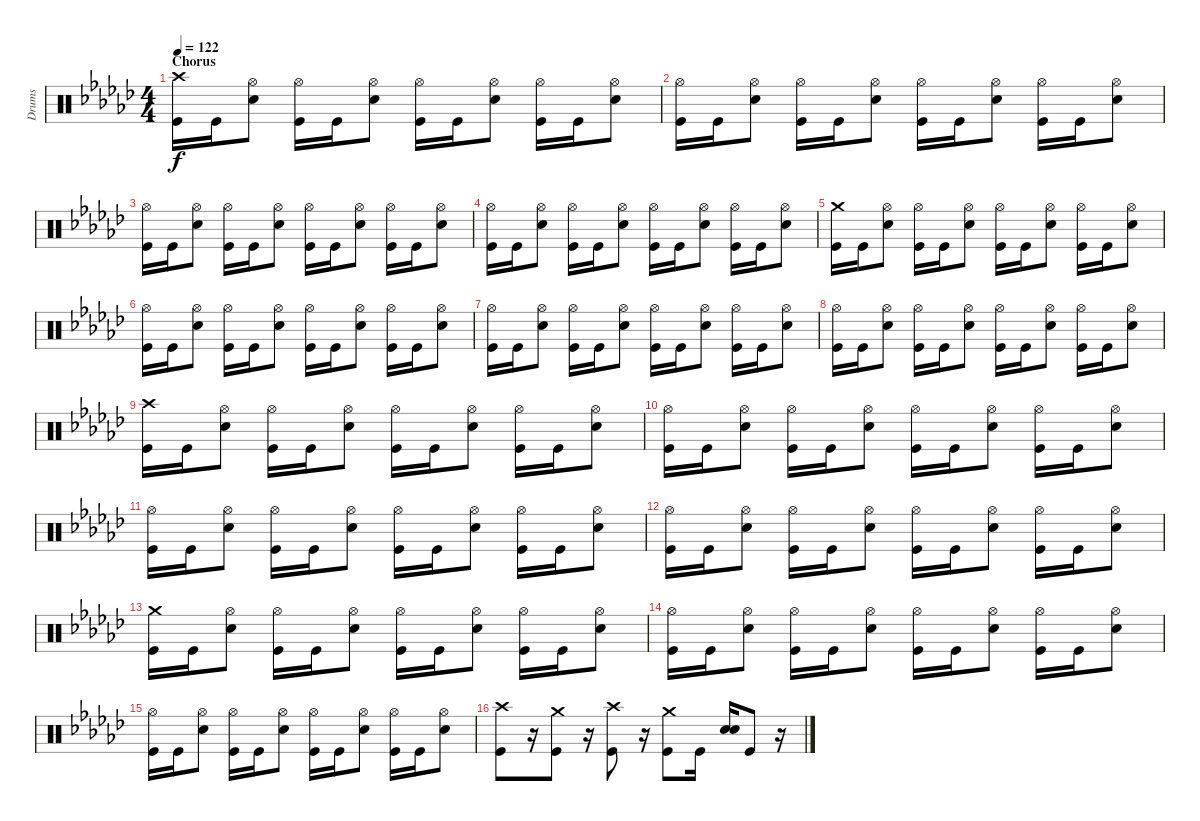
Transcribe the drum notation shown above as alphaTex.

\track ("Drums" "Drums") {instrument percussion}
\staff {score}
\articulation defaults
\ts (4 4)
\section ("" "Chorus")
\tempo 122
\clef neutral
\ks ebminor
("Crash high (hit)" "Kick (hit)").16{dy f} "Kick (hit)".16 ("Hi-Hat (open)" "Snare (hit) 2").8 ("Hi-Hat (open)" "Kick (hit)").16 "Kick (hit)".16 ("Hi-Hat (open)" "Snare (hit) 2").8 ("Hi-Hat (open)" "Kick (hit)").16 "Kick (hit)".16 ("Hi-Hat (open)" "Snare (hit) 2").8 ("Hi-Hat (open)" "Kick (hit)").16 "Kick (hit)".16 ("Hi-Hat (open)" "Snare (hit) 2").8 |
("Hi-Hat (open)" "Kick (hit)").16 "Kick (hit)".16 ("Hi-Hat (open)" "Snare (hit) 2").8 ("Hi-Hat (open)" "Kick (hit)").16 "Kick (hit)".16 ("Hi-Hat (open)" "Snare (hit) 2").8 ("Hi-Hat (open)" "Kick (hit)").16 "Kick (hit)".16 ("Hi-Hat (open)" "Snare (hit) 2").8 ("Hi-Hat (open)" "Kick (hit)").16 "Kick (hit)".16 ("Hi-Hat (open)" "Snare (hit) 2").8 |
("Hi-Hat (open)" "Kick (hit)").16 "Kick (hit)".16 ("Hi-Hat (open)" "Snare (hit) 2").8 ("Hi-Hat (open)" "Kick (hit)").16 "Kick (hit)".16 ("Hi-Hat (open)" "Snare (hit) 2").8 ("Hi-Hat (open)" "Kick (hit)").16 "Kick (hit)".16 ("Hi-Hat (open)" "Snare (hit) 2").8 ("Hi-Hat (open)" "Kick (hit)").16 "Kick (hit)".16 ("Hi-Hat (open)" "Snare (hit) 2").8 |
("Hi-Hat (open)" "Kick (hit)").16 "Kick (hit)".16 ("Hi-Hat (open)" "Snare (hit) 2").8 ("Hi-Hat (open)" "Kick (hit)").16 "Kick (hit)".16 ("Hi-Hat (open)" "Snare (hit) 2").8 ("Hi-Hat (open)" "Kick (hit)").16 "Kick (hit)".16 ("Hi-Hat (open)" "Snare (hit) 2").8 ("Hi-Hat (open)" "Kick (hit)").16 "Kick (hit)".16 ("Hi-Hat (open)" "Snare (hit) 2").8 |
("Crash medium (hit)" "Kick (hit)").16 "Kick (hit)".16 ("Hi-Hat (open)" "Snare (hit) 2").8 ("Hi-Hat (open)" "Kick (hit)").16 "Kick (hit)".16 ("Hi-Hat (open)" "Snare (hit) 2").8 ("Hi-Hat (open)" "Kick (hit)").16 "Kick (hit)".16 ("Hi-Hat (open)" "Snare (hit) 2").8 ("Hi-Hat (open)" "Kick (hit)").16 "Kick (hit)".16 ("Hi-Hat (open)" "Snare (hit) 2").8 |
("Hi-Hat (open)" "Kick (hit)").16 "Kick (hit)".16 ("Hi-Hat (open)" "Snare (hit) 2").8 ("Hi-Hat (open)" "Kick (hit)").16 "Kick (hit)".16 ("Hi-Hat (open)" "Snare (hit) 2").8 ("Hi-Hat (open)" "Kick (hit)").16 "Kick (hit)".16 ("Hi-Hat (open)" "Snare (hit) 2").8 ("Hi-Hat (open)" "Kick (hit)").16 "Kick (hit)".16 ("Hi-Hat (open)" "Snare (hit) 2").8 |
("Hi-Hat (open)" "Kick (hit)").16 "Kick (hit)".16 ("Hi-Hat (open)" "Snare (hit) 2").8 ("Hi-Hat (open)" "Kick (hit)").16 "Kick (hit)".16 ("Hi-Hat (open)" "Snare (hit) 2").8 ("Hi-Hat (open)" "Kick (hit)").16 "Kick (hit)".16 ("Hi-Hat (open)" "Snare (hit) 2").8 ("Hi-Hat (open)" "Kick (hit)").16 "Kick (hit)".16 ("Hi-Hat (open)" "Snare (hit) 2").8 |
("Hi-Hat (open)" "Kick (hit)").16 "Kick (hit)".16 ("Hi-Hat (open)" "Snare (hit) 2").8 ("Hi-Hat (open)" "Kick (hit)").16 "Kick (hit)".16 ("Hi-Hat (open)" "Snare (hit) 2").8 ("Hi-Hat (open)" "Kick (hit)").16 "Kick (hit)".16 ("Hi-Hat (open)" "Snare (hit) 2").8 ("Hi-Hat (open)" "Kick (hit)").16 "Kick (hit)".16 ("Hi-Hat (open)" "Snare (hit) 2").8 |
("Crash high (hit)" "Kick (hit)").16 "Kick (hit)".16 ("Hi-Hat (open)" "Snare (hit) 2").8 ("Hi-Hat (open)" "Kick (hit)").16 "Kick (hit)".16 ("Hi-Hat (open)" "Snare (hit) 2").8 ("Hi-Hat (open)" "Kick (hit)").16 "Kick (hit)".16 ("Hi-Hat (open)" "Snare (hit) 2").8 ("Hi-Hat (open)" "Kick (hit)").16 "Kick (hit)".16 ("Hi-Hat (open)" "Snare (hit) 2").8 |
("Hi-Hat (open)" "Kick (hit)").16 "Kick (hit)".16 ("Hi-Hat (open)" "Snare (hit) 2").8 ("Hi-Hat (open)" "Kick (hit)").16 "Kick (hit)".16 ("Hi-Hat (open)" "Snare (hit) 2").8 ("Hi-Hat (open)" "Kick (hit)").16 "Kick (hit)".16 ("Hi-Hat (open)" "Snare (hit) 2").8 ("Hi-Hat (open)" "Kick (hit)").16 "Kick (hit)".16 ("Hi-Hat (open)" "Snare (hit) 2").8 |
("Hi-Hat (open)" "Kick (hit)").16 "Kick (hit)".16 ("Hi-Hat (open)" "Snare (hit) 2").8 ("Hi-Hat (open)" "Kick (hit)").16 "Kick (hit)".16 ("Hi-Hat (open)" "Snare (hit) 2").8 ("Hi-Hat (open)" "Kick (hit)").16 "Kick (hit)".16 ("Hi-Hat (open)" "Snare (hit) 2").8 ("Hi-Hat (open)" "Kick (hit)").16 "Kick (hit)".16 ("Hi-Hat (open)" "Snare (hit) 2").8 |
("Hi-Hat (open)" "Kick (hit)").16 "Kick (hit)".16 ("Hi-Hat (open)" "Snare (hit) 2").8 ("Hi-Hat (open)" "Kick (hit)").16 "Kick (hit)".16 ("Hi-Hat (open)" "Snare (hit) 2").8 ("Hi-Hat (open)" "Kick (hit)").16 "Kick (hit)".16 ("Hi-Hat (open)" "Snare (hit) 2").8 ("Hi-Hat (open)" "Kick (hit)").16 "Kick (hit)".16 ("Hi-Hat (open)" "Snare (hit) 2").8 |
("Crash medium (hit)" "Kick (hit)").16 "Kick (hit)".16 ("Hi-Hat (open)" "Snare (hit) 2").8 ("Hi-Hat (open)" "Kick (hit)").16 "Kick (hit)".16 ("Hi-Hat (open)" "Snare (hit) 2").8 ("Hi-Hat (open)" "Kick (hit)").16 "Kick (hit)".16 ("Hi-Hat (open)" "Snare (hit) 2").8 ("Hi-Hat (open)" "Kick (hit)").16 "Kick (hit)".16 ("Hi-Hat (open)" "Snare (hit) 2").8 |
("Hi-Hat (open)" "Kick (hit)").16 "Kick (hit)".16 ("Hi-Hat (open)" "Snare (hit) 2").8 ("Hi-Hat (open)" "Kick (hit)").16 "Kick (hit)".16 ("Hi-Hat (open)" "Snare (hit) 2").8 ("Hi-Hat (open)" "Kick (hit)").16 "Kick (hit)".16 ("Hi-Hat (open)" "Snare (hit) 2").8 ("Hi-Hat (open)" "Kick (hit)").16 "Kick (hit)".16 ("Hi-Hat (open)" "Snare (hit) 2").8 |
("Hi-Hat (open)" "Kick (hit)").16 "Kick (hit)".16 ("Hi-Hat (open)" "Snare (hit) 2").8 ("Hi-Hat (open)" "Kick (hit)").16 "Kick (hit)".16 ("Hi-Hat (open)" "Snare (hit) 2").8 ("Hi-Hat (open)" "Kick (hit)").16 "Kick (hit)".16 ("Hi-Hat (open)" "Snare (hit) 2").8 ("Hi-Hat (open)" "Kick (hit)").16 "Kick (hit)".16 ("Hi-Hat (open)" "Snare (hit) 2").8 |
("Crash high (hit)" "Kick (hit)").8 r.16 ("Crash medium (hit)" "Kick (hit)").8 r.16 ("Crash high (hit)" "Kick (hit)").8 r.16 ("Crash medium (hit)" "Kick (hit)").8 "Kick (hit)".16 ("Snare (hit) 2" "Snare (hit) 2").16 "Kick (hit)".8 r.16
